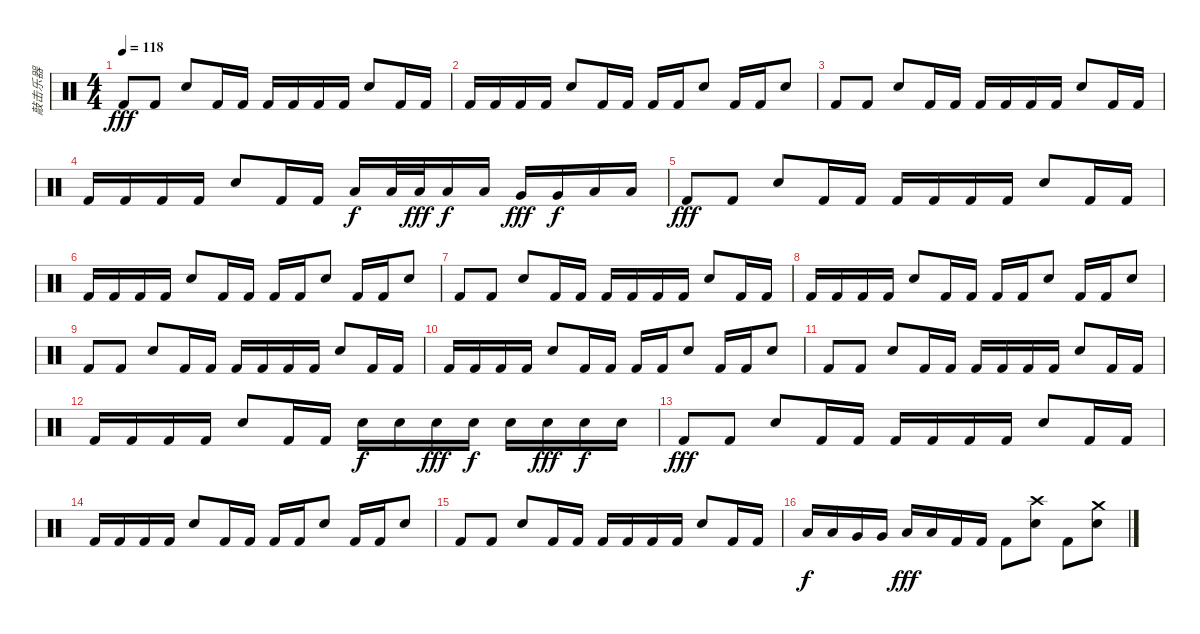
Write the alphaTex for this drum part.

\track ("敲击乐器" "敲击乐器") {instrument percussion}
\staff {score}
\articulation defaults
\ts (4 4)
\tempo 118
\clef neutral
\ks c "Kick (hit) 2".8{dy fff} "Kick (hit) 2".8 "Snare (hit) 2".8 "Kick (hit) 2".16 "Kick (hit) 2".16 "Kick (hit) 2".16 "Kick (hit) 2".16 "Kick (hit) 2".16 "Kick (hit) 2".16 "Snare (hit) 2".8 "Kick (hit) 2".16 "Kick (hit) 2".16
|
"Kick (hit) 2".16 "Kick (hit) 2".16 "Kick (hit) 2".16 "Kick (hit) 2".16 "Snare (hit) 2".8 "Kick (hit) 2".16 "Kick (hit) 2".16 "Kick (hit) 2".16 "Kick (hit) 2".16 "Snare (hit) 2".8 "Kick (hit) 2".16 "Kick (hit) 2".16 "Snare (hit) 2".8 |
"Kick (hit) 2".8 "Kick (hit) 2".8 "Snare (hit) 2".8 "Kick (hit) 2".16 "Kick (hit) 2".16 "Kick (hit) 2".16 "Kick (hit) 2".16 "Kick (hit) 2".16 "Kick (hit) 2".16 "Snare (hit) 2".8 "Kick (hit) 2".16 "Kick (hit) 2".16 |
"Kick (hit) 2".16 "Kick (hit) 2".16 "Kick (hit) 2".16 "Kick (hit) 2".16 "Snare (hit) 2".8 "Kick (hit) 2".16 "Kick (hit) 2".16 "Low Tom (hit)".16{dy f} "Low Tom (hit)".32 "Low Tom (hit)".32{dy fff} "Low Tom (hit)".16{dy f} "Low Tom (hit)".16 "Very Low Tom (hit)".16{dy fff} "Very Low Tom (hit)".16{dy f} "Low Floor Tom (hit)".16 "Low Floor Tom (hit)".16 |
"Kick (hit) 2".8{dy fff} "Kick (hit) 2".8 "Snare (hit) 2".8 "Kick (hit) 2".16 "Kick (hit) 2".16 "Kick (hit) 2".16 "Kick (hit) 2".16 "Kick (hit) 2".16 "Kick (hit) 2".16 "Snare (hit) 2".8 "Kick (hit) 2".16 "Kick (hit) 2".16 |
"Kick (hit) 2".16 "Kick (hit) 2".16 "Kick (hit) 2".16 "Kick (hit) 2".16 "Snare (hit) 2".8 "Kick (hit) 2".16 "Kick (hit) 2".16 "Kick (hit) 2".16 "Kick (hit) 2".16 "Snare (hit) 2".8 "Kick (hit) 2".16 "Kick (hit) 2".16 "Snare (hit) 2".8 |
"Kick (hit) 2".8 "Kick (hit) 2".8 "Snare (hit) 2".8 "Kick (hit) 2".16 "Kick (hit) 2".16 "Kick (hit) 2".16 "Kick (hit) 2".16 "Kick (hit) 2".16 "Kick (hit) 2".16 "Snare (hit) 2".8 "Kick (hit) 2".16 "Kick (hit) 2".16 |
"Kick (hit) 2".16 "Kick (hit) 2".16 "Kick (hit) 2".16 "Kick (hit) 2".16 "Snare (hit) 2".8 "Kick (hit) 2".16 "Kick (hit) 2".16 "Kick (hit) 2".16 "Kick (hit) 2".16 "Snare (hit) 2".8 "Kick (hit) 2".16 "Kick (hit) 2".16 "Snare (hit) 2".8 |
"Kick (hit) 2".8 "Kick (hit) 2".8 "Snare (hit) 2".8 "Kick (hit) 2".16 "Kick (hit) 2".16 "Kick (hit) 2".16 "Kick (hit) 2".16 "Kick (hit) 2".16 "Kick (hit) 2".16 "Snare (hit) 2".8 "Kick (hit) 2".16 "Kick (hit) 2".16 |
"Kick (hit) 2".16 "Kick (hit) 2".16 "Kick (hit) 2".16 "Kick (hit) 2".16 "Snare (hit) 2".8 "Kick (hit) 2".16 "Kick (hit) 2".16 "Kick (hit) 2".16 "Kick (hit) 2".16 "Snare (hit) 2".8 "Kick (hit) 2".16 "Kick (hit) 2".16 "Snare (hit) 2".8 |
"Kick (hit) 2".8 "Kick (hit) 2".8 "Snare (hit) 2".8 "Kick (hit) 2".16 "Kick (hit) 2".16 "Kick (hit) 2".16 "Kick (hit) 2".16 "Kick (hit) 2".16 "Kick (hit) 2".16 "Snare (hit) 2".8 "Kick (hit) 2".16 "Kick (hit) 2".16 |
"Kick (hit) 2".16 "Kick (hit) 2".16 "Kick (hit) 2".16 "Kick (hit) 2".16 "Snare (hit) 2".8 "Kick (hit) 2".16 "Kick (hit) 2".16 "Snare (hit) 2".16{dy f} "Snare (hit) 2".16 "Snare (hit) 2".16{dy fff} "Snare (hit) 2".16{dy f} "Snare (hit) 2".16 "Snare (hit) 2".16{dy fff} "Snare (hit) 2".16{dy f} "Snare (hit) 2".16 |
"Kick (hit) 2".8{dy fff} "Kick (hit) 2".8 "Snare (hit) 2".8 "Kick (hit) 2".16 "Kick (hit) 2".16 "Kick (hit) 2".16 "Kick (hit) 2".16 "Kick (hit) 2".16 "Kick (hit) 2".16 "Snare (hit) 2".8 "Kick (hit) 2".16 "Kick (hit) 2".16 |
"Kick (hit) 2".16 "Kick (hit) 2".16 "Kick (hit) 2".16 "Kick (hit) 2".16 "Snare (hit) 2".8 "Kick (hit) 2".16 "Kick (hit) 2".16 "Kick (hit) 2".16 "Kick (hit) 2".16 "Snare (hit) 2".8 "Kick (hit) 2".16 "Kick (hit) 2".16 "Snare (hit) 2".8 |
"Kick (hit) 2".8 "Kick (hit) 2".8 "Snare (hit) 2".8 "Kick (hit) 2".16 "Kick (hit) 2".16 "Kick (hit) 2".16 "Kick (hit) 2".16 "Kick (hit) 2".16 "Kick (hit) 2".16 "Snare (hit) 2".8 "Kick (hit) 2".16 "Kick (hit) 2".16 |
"Low Tom (hit)".16{dy f} "Low Tom (hit)".16 "Very Low Tom (hit)".16 "Very Low Tom (hit)".16 "Low Floor Tom (hit)".16{dy fff} "Low Floor Tom (hit)".16 "Kick (hit) 2".16 "Kick (hit) 2".16 "Kick (hit) 2".8 ("Crash high (hit)" "Snare (hit) 2").8 "Kick (hit) 2".8 ("Crash medium (hit)" "Snare (hit) 2").8
